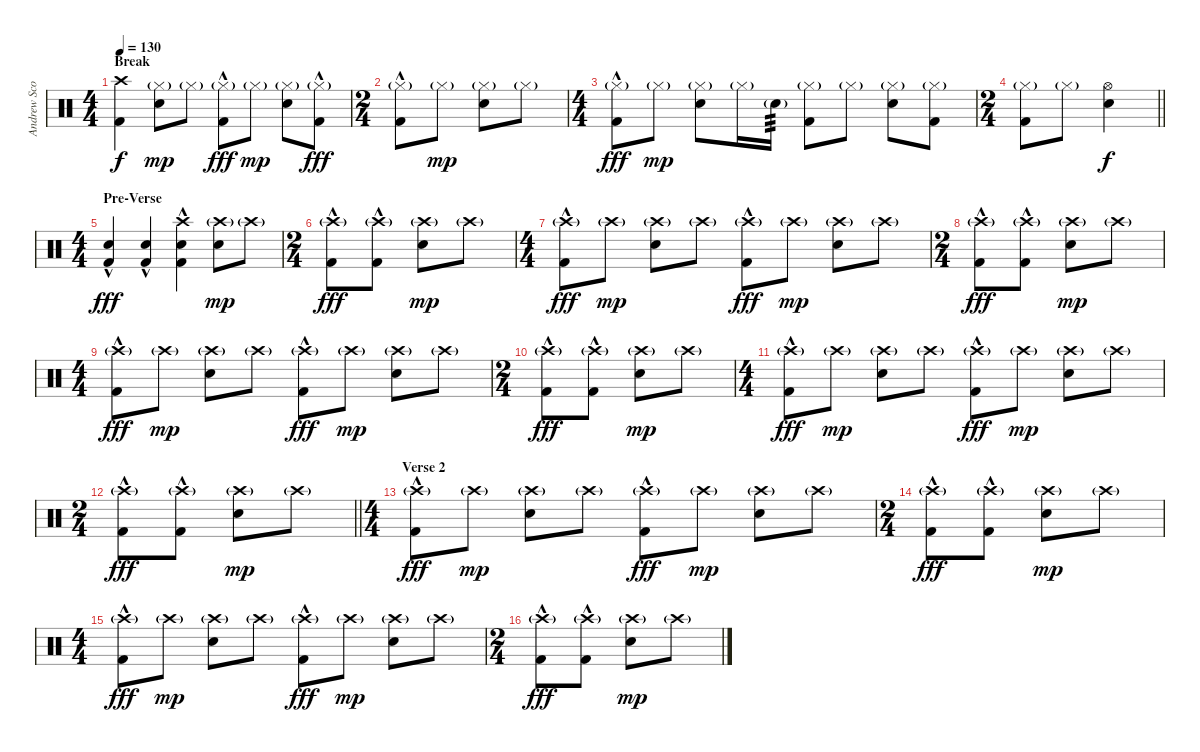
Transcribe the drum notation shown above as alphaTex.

\track ("Andrew Scott" "Andrew Sco") {instrument percussion}
\staff {score}
\articulation defaults
\ts (4 4)
\section ("" "Break")
\tempo 130
\clef neutral
\ks c
("Crash high (hit)"{t} "Kick (hit) 2"{t}).4{dy f} ("Hi-Hat (closed)"{g} "Snare (hit) 2").8{dy mp} "Hi-Hat (closed)"{g}.8 ("Hi-Hat (closed)"{g} "Kick (hit) 2"{hac}).8{dy fff} "Hi-Hat (closed)"{g}.8{dy mp} ("Hi-Hat (closed)"{g} "Snare (hit) 2").8 ("Hi-Hat (closed)"{g} "Kick (hit) 2"{hac}).8{dy fff} |
\ts (2 4)
("Hi-Hat (closed)"{g} "Kick (hit) 2"{hac}).8 "Hi-Hat (closed)"{g}.8{dy mp} ("Hi-Hat (closed)"{g} "Snare (hit) 2").8 "Hi-Hat (closed)"{g}.8 |
\ts (4 4)
("Hi-Hat (closed)"{g} "Kick (hit) 2"{hac}).8{dy fff} "Hi-Hat (closed)"{g}.8{dy mp} ("Hi-Hat (closed)"{g} "Snare (hit) 2").8 "Hi-Hat (closed)"{g}.16 "Snare (hit) 2"{g}.16{tp 3} ("Hi-Hat (closed)"{g} "Kick (hit) 2").8 "Hi-Hat (closed)"{g}.8 ("Hi-Hat (closed)"{g} "Snare (hit) 2").8 ("Hi-Hat (closed)"{g} "Kick (hit) 2").8 |
\ts (2 4)
\barLineRight lightlight
("Hi-Hat (closed)"{g} "Kick (hit) 2").8 "Hi-Hat (closed)"{g}.8 ("Hi-Hat (open)" "Snare (hit) 2").4{dy f} |
\ts (4 4)
\section ("" "Pre-Verse")
("Snare (hit) 2" "Kick (hit) 2"{hac}).4{dy fff} ("Snare (hit) 2" "Kick (hit) 2"{hac}).4 ("Crash high (hit)" "Snare (hit) 2" "Kick (hit) 2"{hac}).4 ("Crash high (hit)"{g} "Snare (hit) 2").8{dy mp} "Crash high (hit)"{g}.8 |
\ts (2 4)
("Crash high (hit)"{g} "Kick (hit) 2"{hac}).8{dy fff} ("Crash high (hit)"{g} "Kick (hit) 2"{hac}).8 ("Crash high (hit)"{g} "Snare (hit) 2").8{dy mp} "Crash high (hit)"{g}.8 |
\ts (4 4)
("Crash high (hit)"{g} "Kick (hit) 2"{hac}).8{dy fff} "Crash high (hit)"{g}.8{dy mp} ("Crash high (hit)"{g} "Snare (hit) 2").8 "Crash high (hit)"{g}.8 ("Crash high (hit)"{g} "Kick (hit) 2"{hac}).8{dy fff} "Crash high (hit)"{g}.8{dy mp} ("Crash high (hit)"{g} "Snare (hit) 2").8 "Crash high (hit)"{g}.8 |
\ts (2 4)
("Crash high (hit)"{g} "Kick (hit) 2"{hac}).8{dy fff} ("Crash high (hit)"{g} "Kick (hit) 2"{hac}).8 ("Crash high (hit)"{g} "Snare (hit) 2").8{dy mp} "Crash high (hit)"{g}.8 |
\ts (4 4)
("Crash high (hit)"{g} "Kick (hit) 2"{hac}).8{dy fff} "Crash high (hit)"{g}.8{dy mp} ("Crash high (hit)"{g} "Snare (hit) 2").8 "Crash high (hit)"{g}.8 ("Crash high (hit)"{g} "Kick (hit) 2"{hac}).8{dy fff} "Crash high (hit)"{g}.8{dy mp} ("Crash high (hit)"{g} "Snare (hit) 2").8 "Crash high (hit)"{g}.8 |
\ts (2 4)
("Crash high (hit)"{g} "Kick (hit) 2"{hac}).8{dy fff} ("Crash high (hit)"{g} "Kick (hit) 2"{hac}).8 ("Crash high (hit)"{g} "Snare (hit) 2").8{dy mp} "Crash high (hit)"{g}.8 |
\ts (4 4)
("Crash high (hit)"{g} "Kick (hit) 2"{hac}).8{dy fff} "Crash high (hit)"{g}.8{dy mp} ("Crash high (hit)"{g} "Snare (hit) 2").8 "Crash high (hit)"{g}.8 ("Crash high (hit)"{g} "Kick (hit) 2"{hac}).8{dy fff} "Crash high (hit)"{g}.8{dy mp} ("Crash high (hit)"{g} "Snare (hit) 2").8 "Crash high (hit)"{g}.8 |
\ts (2 4)
\barLineRight lightlight
("Crash high (hit)"{g} "Kick (hit) 2"{hac}).8{dy fff} ("Crash high (hit)"{g} "Kick (hit) 2"{hac}).8 ("Crash high (hit)"{g} "Snare (hit) 2").8{dy mp} "Crash high (hit)"{g}.8 |
\ts (4 4)
\section ("" "Verse 2")
("Crash high (hit)"{g} "Kick (hit) 2"{hac}).8{dy fff} "Crash high (hit)"{g}.8{dy mp} ("Crash high (hit)"{g} "Snare (hit) 2").8 "Crash high (hit)"{g}.8 ("Crash high (hit)"{g} "Kick (hit) 2"{hac}).8{dy fff} "Crash high (hit)"{g}.8{dy mp} ("Crash high (hit)"{g} "Snare (hit) 2").8 "Crash high (hit)"{g}.8 |
\ts (2 4)
("Crash high (hit)"{g} "Kick (hit) 2"{hac}).8{dy fff} ("Crash high (hit)"{g} "Kick (hit) 2"{hac}).8 ("Crash high (hit)"{g} "Snare (hit) 2").8{dy mp} "Crash high (hit)"{g}.8 |
\ts (4 4)
("Crash high (hit)"{g} "Kick (hit) 2"{hac}).8{dy fff} "Crash high (hit)"{g}.8{dy mp} ("Crash high (hit)"{g} "Snare (hit) 2").8 "Crash high (hit)"{g}.8 ("Crash high (hit)"{g} "Kick (hit) 2"{hac}).8{dy fff} "Crash high (hit)"{g}.8{dy mp} ("Crash high (hit)"{g} "Snare (hit) 2").8 "Crash high (hit)"{g}.8 |
\ts (2 4)
("Crash high (hit)"{g} "Kick (hit) 2"{hac}).8{dy fff} ("Crash high (hit)"{g} "Kick (hit) 2"{hac}).8 ("Crash high (hit)"{g} "Snare (hit) 2").8{dy mp} "Crash high (hit)"{g}.8
